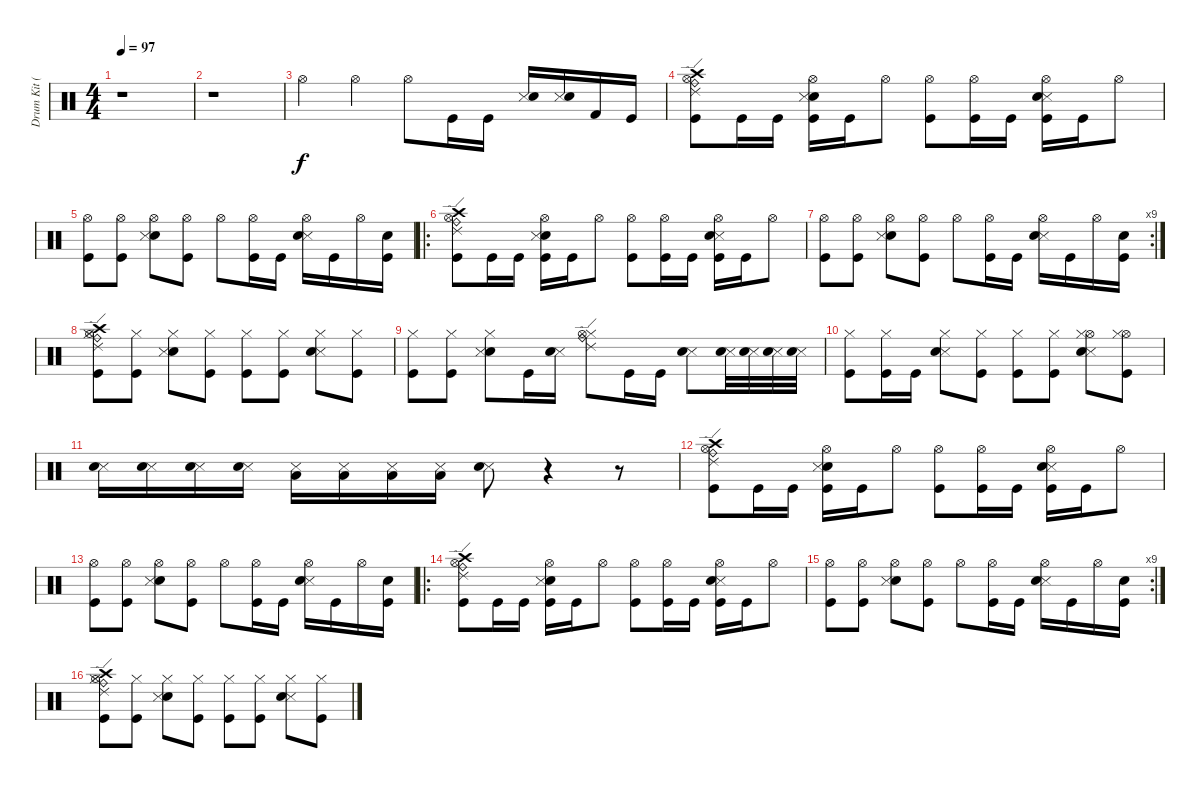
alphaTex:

\track ("Drum Kit (Drum Kit 0)" "Drum Kit (") {instrument percussion}
\staff {score}
\articulation defaults
\ts (4 4)
\tempo 97
\clef neutral
\ks c
r.1{dy f} |
r.1 |
"Hi-Hat (open)".4 "Hi-Hat (open)".4 "Hi-Hat (open)".8 "Kick (hit)".16 "Kick (hit)".16 ("Snare (side stick) 3" "Electric Snare (hit)").16 ("Snare (side stick) 3" "Electric Snare (hit)").16 "Kick (hit) 2".16 "Kick (hit)".16 |
("Crash high (hit)" "Ride (edge) 2" "Kick (hit)" "Hi-Hat (open)" "Ride (bell)").8 "Kick (hit)".16 "Kick (hit)".16 ("Electric Snare (hit)" "Snare (side stick) 3" "Kick (hit)" "Hi-Hat (open)").16 "Kick (hit)".16 "Hi-Hat (open)".8 ("Kick (hit)" "Hi-Hat (open)").8 ("Kick (hit)" "Hi-Hat (open)").16 "Kick (hit)".16 ("Snare (side stick) 3" "Electric Snare (hit)" "Kick (hit)" "Hi-Hat (open)").16 "Kick (hit)".16 "Hi-Hat (open)".8 |
("Kick (hit)" "Hi-Hat (open)").8 ("Kick (hit)" "Hi-Hat (open)").8 ("Electric Snare (hit)" "Snare (side stick) 3" "Hi-Hat (open)").8 ("Kick (hit)" "Hi-Hat (open)").8 "Hi-Hat (open)".8 ("Kick (hit)" "Hi-Hat (open)").16 "Kick (hit)".16 ("Snare (side stick) 3" "Electric Snare (hit)" "Hi-Hat (open)").16 "Kick (hit)".16 "Hi-Hat (open)".16 ("Kick (hit)" "Electric Snare (hit)").16 |
\ro
("Crash high (hit)" "Ride (edge) 2" "Kick (hit)" "Hi-Hat (open)" "Ride (bell)").8 "Kick (hit)".16 "Kick (hit)".16 ("Electric Snare (hit)" "Snare (side stick) 3" "Kick (hit)" "Hi-Hat (open)").16 "Kick (hit)".16 "Hi-Hat (open)".8 ("Kick (hit)" "Hi-Hat (open)").8 ("Kick (hit)" "Hi-Hat (open)").16 "Kick (hit)".16 ("Snare (side stick) 3" "Electric Snare (hit)" "Kick (hit)" "Hi-Hat (open)").16 "Kick (hit)".16 "Hi-Hat (open)".8 |
\rc 9
("Kick (hit)" "Hi-Hat (open)").8 ("Kick (hit)" "Hi-Hat (open)").8 ("Electric Snare (hit)" "Snare (side stick) 3" "Hi-Hat (open)").8 ("Kick (hit)" "Hi-Hat (open)").8 "Hi-Hat (open)".8 ("Kick (hit)" "Hi-Hat (open)").16 "Kick (hit)".16 ("Snare (side stick) 3" "Electric Snare (hit)" "Hi-Hat (open)").16 "Kick (hit)".16 "Hi-Hat (open)".16 ("Kick (hit)" "Electric Snare (hit)").16 |
("Kick (hit)" "Hi-Hat (closed)" "Hi-Hat (open)" "Crash high (hit)" "Ride (bell)" "Ride (edge) 2").8 ("Hi-Hat (closed)" "Kick (hit)").8 ("Hi-Hat (closed)" "Electric Snare (hit)" "Snare (side stick) 3").8 ("Hi-Hat (closed)" "Kick (hit)").8 ("Hi-Hat (closed)" "Kick (hit)").8 ("Kick (hit)" "Hi-Hat (closed)").8 ("Hi-Hat (closed)" "Snare (side stick) 3" "Electric Snare (hit)").8 ("Hi-Hat (closed)" "Kick (hit)").8 |
("Hi-Hat (closed)" "Kick (hit)").8 ("Hi-Hat (closed)" "Kick (hit)").8 ("Hi-Hat (closed)" "Electric Snare (hit)" "Snare (side stick) 3").8 "Kick (hit)".16 ("Snare (side stick) 3" "Electric Snare (hit)").16 ("Hi-Hat (closed)" "Hi-Hat (open)" "Ride (bell)" "Ride (edge) 2").8 "Kick (hit)".16 "Kick (hit)".16 ("Snare (side stick) 3" "Electric Snare (hit)").8 ("Snare (side stick) 3" "Electric Snare (hit)").32 ("Snare (side stick) 3" "Electric Snare (hit)").32 ("Snare (side stick) 3" "Electric Snare (hit)").32 ("Snare (side stick) 3" "Electric Snare (hit)").32 |
("Kick (hit)" "Hi-Hat (closed)").8 ("Kick (hit)" "Hi-Hat (closed)").16 "Kick (hit)".16 ("Snare (side stick) 3" "Electric Snare (hit)" "Hi-Hat (closed)").8 ("Kick (hit)" "Hi-Hat (closed)").8 ("Kick (hit)" "Hi-Hat (closed)").8 ("Kick (hit)" "Hi-Hat (closed)").8 ("Hi-Hat (open)" "Snare (side stick) 3" "Electric Snare (hit)" "Hi-Hat (closed)").8 ("Kick (hit)" "Hi-Hat (open)" "Hi-Hat (closed)").8 |
("Snare (side stick) 3" "Electric Snare (hit)").16 ("Snare (side stick) 3" "Electric Snare (hit)").16 ("Snare (side stick) 3" "Electric Snare (hit)").16 ("Snare (side stick) 3" "Electric Snare (hit)").16 ("Snare (side stick) 3" "Low Floor Tom (hit)").16 ("Snare (side stick) 3" "Low Floor Tom (hit)").16 ("Snare (side stick) 3" "Low Floor Tom (hit)").16 ("Snare (side stick) 3" "Low Floor Tom (hit)").16 ("Snare (side stick) 3" "Electric Snare (hit)").8 r.4 r.8 |
("Crash high (hit)" "Ride (edge) 2" "Kick (hit)" "Hi-Hat (open)" "Ride (bell)").8 "Kick (hit)".16 "Kick (hit)".16 ("Electric Snare (hit)" "Snare (side stick) 3" "Kick (hit)" "Hi-Hat (open)").16 "Kick (hit)".16 "Hi-Hat (open)".8 ("Kick (hit)" "Hi-Hat (open)").8 ("Kick (hit)" "Hi-Hat (open)").16 "Kick (hit)".16 ("Snare (side stick) 3" "Electric Snare (hit)" "Kick (hit)" "Hi-Hat (open)").16 "Kick (hit)".16 "Hi-Hat (open)".8 |
("Kick (hit)" "Hi-Hat (open)").8 ("Kick (hit)" "Hi-Hat (open)").8 ("Electric Snare (hit)" "Snare (side stick) 3" "Hi-Hat (open)").8 ("Kick (hit)" "Hi-Hat (open)").8 "Hi-Hat (open)".8 ("Kick (hit)" "Hi-Hat (open)").16 "Kick (hit)".16 ("Snare (side stick) 3" "Electric Snare (hit)" "Hi-Hat (open)").16 "Kick (hit)".16 "Hi-Hat (open)".16 ("Kick (hit)" "Electric Snare (hit)").16 |
\ro
("Crash high (hit)" "Ride (edge) 2" "Kick (hit)" "Hi-Hat (open)" "Ride (bell)").8 "Kick (hit)".16 "Kick (hit)".16 ("Electric Snare (hit)" "Snare (side stick) 3" "Kick (hit)" "Hi-Hat (open)").16 "Kick (hit)".16 "Hi-Hat (open)".8 ("Kick (hit)" "Hi-Hat (open)").8 ("Kick (hit)" "Hi-Hat (open)").16 "Kick (hit)".16 ("Snare (side stick) 3" "Electric Snare (hit)" "Kick (hit)" "Hi-Hat (open)").16 "Kick (hit)".16 "Hi-Hat (open)".8 |
\rc 9
("Kick (hit)" "Hi-Hat (open)").8 ("Kick (hit)" "Hi-Hat (open)").8 ("Electric Snare (hit)" "Snare (side stick) 3" "Hi-Hat (open)").8 ("Kick (hit)" "Hi-Hat (open)").8 "Hi-Hat (open)".8 ("Kick (hit)" "Hi-Hat (open)").16 "Kick (hit)".16 ("Snare (side stick) 3" "Electric Snare (hit)" "Hi-Hat (open)").16 "Kick (hit)".16 "Hi-Hat (open)".16 ("Kick (hit)" "Electric Snare (hit)").16 |
("Kick (hit)" "Hi-Hat (closed)" "Hi-Hat (open)" "Crash high (hit)" "Ride (bell)" "Ride (edge) 2").8 ("Hi-Hat (closed)" "Kick (hit)").8 ("Hi-Hat (closed)" "Electric Snare (hit)" "Snare (side stick) 3").8 ("Hi-Hat (closed)" "Kick (hit)").8 ("Hi-Hat (closed)" "Kick (hit)").8 ("Kick (hit)" "Hi-Hat (closed)").8 ("Hi-Hat (closed)" "Snare (side stick) 3" "Electric Snare (hit)").8 ("Hi-Hat (closed)" "Kick (hit)").8
